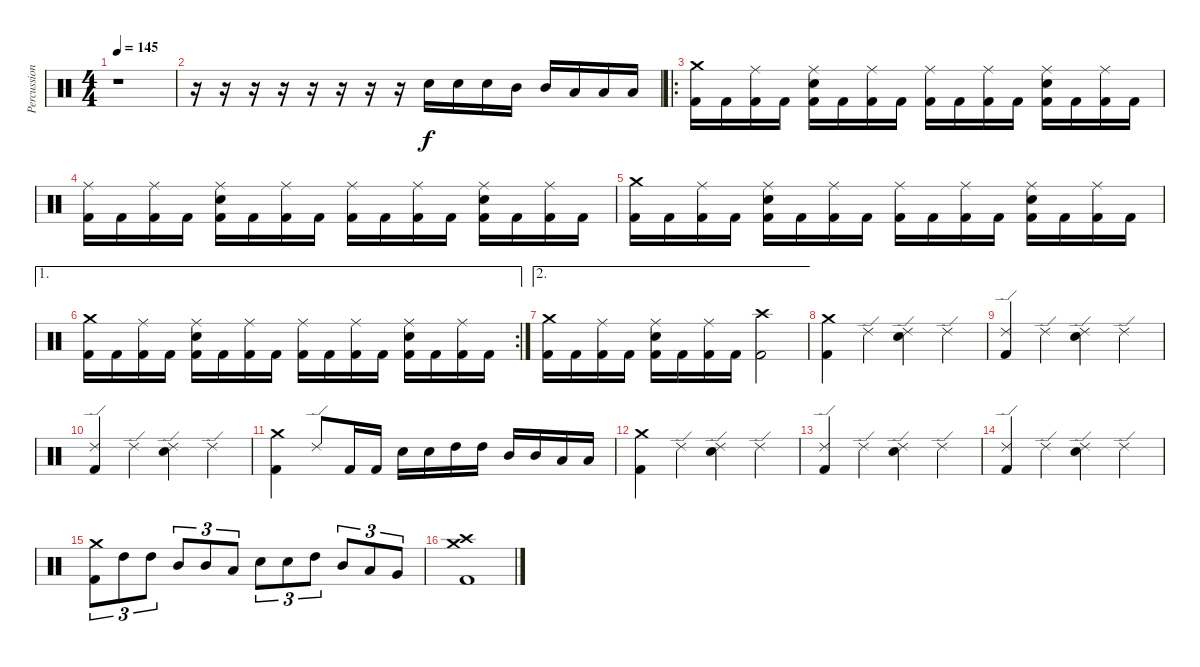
\track ("Percussion" "Percussion") {instrument percussion}
\staff {score}
\articulation defaults
\ts (4 4)
\tempo 145
\clef neutral
\ks c
r.1{dy f} |
r.16 r.16 r.16 r.16 r.16 r.16 r.16 r.16 "Electric Snare (hit)".16 "Electric Snare (hit)".16 "Electric Snare (hit)".16 "Mid Tom (hit)".16 "Mid Tom (hit)".16 "Low Tom (hit)".16 "Low Tom (hit)".16 "Low Tom (hit)".16 |
\ro
("Kick (hit) 2" "Crash medium (hit)").16 "Kick (hit) 2".16 ("Kick (hit) 2" "Ride (middle)").16 "Kick (hit) 2".16 ("Kick (hit) 2" "Electric Snare (hit)" "Ride (middle)").16 "Kick (hit) 2".16 ("Kick (hit) 2" "Ride (middle)").16 "Kick (hit) 2".16 ("Kick (hit) 2" "Ride (middle)").16 "Kick (hit) 2".16 ("Kick (hit) 2" "Ride (middle)").16 "Kick (hit) 2".16 ("Kick (hit) 2" "Electric Snare (hit)" "Ride (middle)").16 "Kick (hit) 2".16 ("Kick (hit) 2" "Ride (middle)").16 "Kick (hit) 2".16 |
("Kick (hit) 2" "Ride (middle)").16 "Kick (hit) 2".16 ("Kick (hit) 2" "Ride (middle)").16 "Kick (hit) 2".16 ("Kick (hit) 2" "Electric Snare (hit)" "Ride (middle)").16 "Kick (hit) 2".16 ("Kick (hit) 2" "Ride (middle)").16 "Kick (hit) 2".16 ("Kick (hit) 2" "Ride (middle)").16 "Kick (hit) 2".16 ("Kick (hit) 2" "Ride (middle)").16 "Kick (hit) 2".16 ("Kick (hit) 2" "Electric Snare (hit)" "Ride (middle)").16 "Kick (hit) 2".16 ("Kick (hit) 2" "Ride (middle)").16 "Kick (hit) 2".16 |
("Kick (hit) 2" "Crash medium (hit)").16 "Kick (hit) 2".16 ("Kick (hit) 2" "Ride (middle)").16 "Kick (hit) 2".16 ("Kick (hit) 2" "Electric Snare (hit)" "Ride (middle)").16 "Kick (hit) 2".16 ("Kick (hit) 2" "Ride (middle)").16 "Kick (hit) 2".16 ("Kick (hit) 2" "Ride (middle)").16 "Kick (hit) 2".16 ("Kick (hit) 2" "Ride (middle)").16 "Kick (hit) 2".16 ("Kick (hit) 2" "Electric Snare (hit)" "Ride (middle)").16 "Kick (hit) 2".16 ("Kick (hit) 2" "Ride (middle)").16 "Kick (hit) 2".16 |
\ae 1
\rc 2
("Kick (hit) 2" "Crash medium (hit)").16 "Kick (hit) 2".16 ("Kick (hit) 2" "Ride (middle)").16 "Kick (hit) 2".16 ("Kick (hit) 2" "Electric Snare (hit)" "Ride (middle)").16 "Kick (hit) 2".16 ("Kick (hit) 2" "Ride (middle)").16 "Kick (hit) 2".16 ("Kick (hit) 2" "Ride (middle)").16 "Kick (hit) 2".16 ("Kick (hit) 2" "Ride (middle)").16 "Kick (hit) 2".16 ("Kick (hit) 2" "Electric Snare (hit)" "Ride (middle)").16 "Kick (hit) 2".16 ("Kick (hit) 2" "Ride (middle)").16 "Kick (hit) 2".16 |
\ae 2
("Kick (hit) 2" "Crash medium (hit)").16 "Kick (hit) 2".16 ("Kick (hit) 2" "Ride (middle)").16 "Kick (hit) 2".16 ("Kick (hit) 2" "Electric Snare (hit)" "Ride (middle)").16 "Kick (hit) 2".16 ("Kick (hit) 2" "Ride (middle)").16 "Kick (hit) 2".16 ("Kick (hit) 2" "Crash high (hit)").2 |
("Kick (hit) 2" "Crash medium (hit)").4 "Ride (edge) 2".4 ("Electric Snare (hit)" "Ride (edge) 2").4 "Ride (edge) 2".4 |
("Kick (hit) 2" "Ride (edge) 2").4 "Ride (edge) 2".4 ("Electric Snare (hit)" "Ride (edge) 2").4 "Ride (edge) 2".4 |
("Kick (hit) 2" "Ride (edge) 2").4 "Ride (edge) 2".4 ("Electric Snare (hit)" "Ride (edge) 2").4 "Ride (edge) 2".4 |
("Kick (hit) 2" "Crash medium (hit)").4 "Ride (edge) 2".8 "Kick (hit) 2".16 "Kick (hit) 2".16 "Electric Snare (hit)".16 "Electric Snare (hit)".16 "High Tom (hit)".16 "High Tom (hit)".16 "Mid Tom (hit)".16 "Mid Tom (hit)".16 "Low Tom (hit)".16 "Low Tom (hit)".16 |
("Kick (hit) 2" "Crash medium (hit)").4 "Ride (edge) 2".4 ("Electric Snare (hit)" "Ride (edge) 2").4 "Ride (edge) 2".4 |
("Kick (hit) 2" "Ride (edge) 2").4 "Ride (edge) 2".4 ("Electric Snare (hit)" "Ride (edge) 2").4 "Ride (edge) 2".4 |
("Kick (hit) 2" "Ride (edge) 2").4 "Ride (edge) 2".4 ("Electric Snare (hit)" "Ride (edge) 2").4 "Ride (edge) 2".4 |
("Kick (hit) 2" "Crash medium (hit)").8{tu (3 2)} "High Tom (hit)".8{tu (3 2)} "High Tom (hit)".8{tu (3 2)} "Mid Tom (hit)".8{tu (3 2)} "Mid Tom (hit)".8{tu (3 2)} "Low Tom (hit)".8{tu (3 2)} "Electric Snare (hit)".8{tu (3 2)} "Electric Snare (hit)".8{tu (3 2)} "High Tom (hit)".8{tu (3 2)} "Mid Tom (hit)".8{tu (3 2)} "Low Tom (hit)".8{tu (3 2)} "Very Low Tom (hit)".8{tu (3 2)} |
("Kick (hit) 2" "Crash high (hit)" "Crash medium (hit)").1
